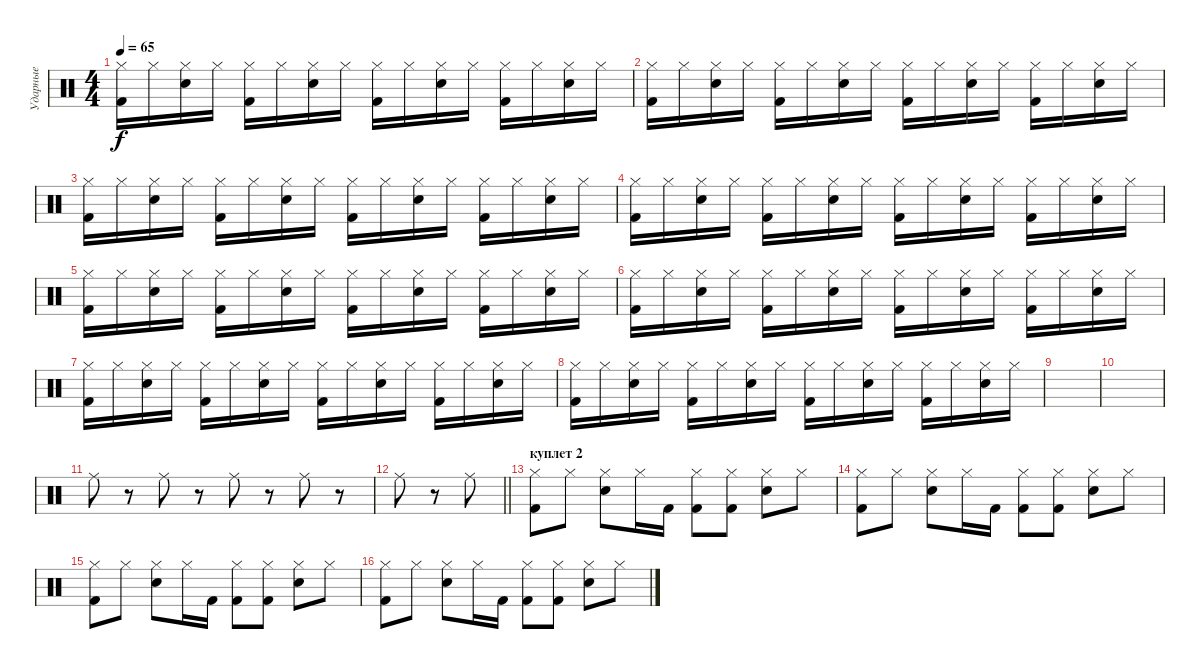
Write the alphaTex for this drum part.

\track ("Ударные" "Ударные") {instrument percussion}
\staff {score}
\articulation defaults
\ts (4 4)
\tempo 65
\clef neutral
\ks c
("Hi-Hat (closed)" "Kick (hit) 2").16{dy f} "Hi-Hat (closed)".16 ("Hi-Hat (closed)" "Snare (hit) 2").16 "Hi-Hat (closed)".16 ("Hi-Hat (closed)" "Kick (hit) 2").16 "Hi-Hat (closed)".16 ("Hi-Hat (closed)" "Snare (hit) 2").16 "Hi-Hat (closed)".16 ("Hi-Hat (closed)" "Kick (hit) 2").16 "Hi-Hat (closed)".16 ("Hi-Hat (closed)" "Snare (hit) 2").16 "Hi-Hat (closed)".16 ("Hi-Hat (closed)" "Kick (hit) 2").16 "Hi-Hat (closed)".16 ("Hi-Hat (closed)" "Snare (hit) 2").16 "Hi-Hat (closed)".16 |
("Hi-Hat (closed)" "Kick (hit) 2").16 "Hi-Hat (closed)".16 ("Hi-Hat (closed)" "Snare (hit) 2").16 "Hi-Hat (closed)".16 ("Hi-Hat (closed)" "Kick (hit) 2").16 "Hi-Hat (closed)".16 ("Hi-Hat (closed)" "Snare (hit) 2").16 "Hi-Hat (closed)".16 ("Hi-Hat (closed)" "Kick (hit) 2").16 "Hi-Hat (closed)".16 ("Hi-Hat (closed)" "Snare (hit) 2").16 "Hi-Hat (closed)".16 ("Hi-Hat (closed)" "Kick (hit) 2").16 "Hi-Hat (closed)".16 ("Hi-Hat (closed)" "Snare (hit) 2").16 "Hi-Hat (closed)".16 |
("Hi-Hat (closed)" "Kick (hit) 2").16 "Hi-Hat (closed)".16 ("Hi-Hat (closed)" "Snare (hit) 2").16 "Hi-Hat (closed)".16 ("Hi-Hat (closed)" "Kick (hit) 2").16 "Hi-Hat (closed)".16 ("Hi-Hat (closed)" "Snare (hit) 2").16 "Hi-Hat (closed)".16 ("Hi-Hat (closed)" "Kick (hit) 2").16 "Hi-Hat (closed)".16 ("Hi-Hat (closed)" "Snare (hit) 2").16 "Hi-Hat (closed)".16 ("Hi-Hat (closed)" "Kick (hit) 2").16 "Hi-Hat (closed)".16 ("Hi-Hat (closed)" "Snare (hit) 2").16 "Hi-Hat (closed)".16 |
("Hi-Hat (closed)" "Kick (hit) 2").16 "Hi-Hat (closed)".16 ("Hi-Hat (closed)" "Snare (hit) 2").16 "Hi-Hat (closed)".16 ("Hi-Hat (closed)" "Kick (hit) 2").16 "Hi-Hat (closed)".16 ("Hi-Hat (closed)" "Snare (hit) 2").16 "Hi-Hat (closed)".16 ("Hi-Hat (closed)" "Kick (hit) 2").16 "Hi-Hat (closed)".16 ("Hi-Hat (closed)" "Snare (hit) 2").16 "Hi-Hat (closed)".16 ("Hi-Hat (closed)" "Kick (hit) 2").16 "Hi-Hat (closed)".16 ("Hi-Hat (closed)" "Snare (hit) 2").16 "Hi-Hat (closed)".16 |
("Hi-Hat (closed)" "Kick (hit) 2").16 "Hi-Hat (closed)".16 ("Hi-Hat (closed)" "Snare (hit) 2").16 "Hi-Hat (closed)".16 ("Hi-Hat (closed)" "Kick (hit) 2").16 "Hi-Hat (closed)".16 ("Hi-Hat (closed)" "Snare (hit) 2").16 "Hi-Hat (closed)".16 ("Hi-Hat (closed)" "Kick (hit) 2").16 "Hi-Hat (closed)".16 ("Hi-Hat (closed)" "Snare (hit) 2").16 "Hi-Hat (closed)".16 ("Hi-Hat (closed)" "Kick (hit) 2").16 "Hi-Hat (closed)".16 ("Hi-Hat (closed)" "Snare (hit) 2").16 "Hi-Hat (closed)".16 |
("Hi-Hat (closed)" "Kick (hit) 2").16 "Hi-Hat (closed)".16 ("Hi-Hat (closed)" "Snare (hit) 2").16 "Hi-Hat (closed)".16 ("Hi-Hat (closed)" "Kick (hit) 2").16 "Hi-Hat (closed)".16 ("Hi-Hat (closed)" "Snare (hit) 2").16 "Hi-Hat (closed)".16 ("Hi-Hat (closed)" "Kick (hit) 2").16 "Hi-Hat (closed)".16 ("Hi-Hat (closed)" "Snare (hit) 2").16 "Hi-Hat (closed)".16 ("Hi-Hat (closed)" "Kick (hit) 2").16 "Hi-Hat (closed)".16 ("Hi-Hat (closed)" "Snare (hit) 2").16 "Hi-Hat (closed)".16 |
("Hi-Hat (closed)" "Kick (hit) 2").16 "Hi-Hat (closed)".16 ("Hi-Hat (closed)" "Snare (hit) 2").16 "Hi-Hat (closed)".16 ("Hi-Hat (closed)" "Kick (hit) 2").16 "Hi-Hat (closed)".16 ("Hi-Hat (closed)" "Snare (hit) 2").16 "Hi-Hat (closed)".16 ("Hi-Hat (closed)" "Kick (hit) 2").16 "Hi-Hat (closed)".16 ("Hi-Hat (closed)" "Snare (hit) 2").16 "Hi-Hat (closed)".16 ("Hi-Hat (closed)" "Kick (hit) 2").16 "Hi-Hat (closed)".16 ("Hi-Hat (closed)" "Snare (hit) 2").16 "Hi-Hat (closed)".16 |
("Hi-Hat (closed)" "Kick (hit) 2").16 "Hi-Hat (closed)".16 ("Hi-Hat (closed)" "Snare (hit) 2").16 "Hi-Hat (closed)".16 ("Hi-Hat (closed)" "Kick (hit) 2").16 "Hi-Hat (closed)".16 ("Hi-Hat (closed)" "Snare (hit) 2").16 "Hi-Hat (closed)".16 ("Hi-Hat (closed)" "Kick (hit) 2").16 "Hi-Hat (closed)".16 ("Hi-Hat (closed)" "Snare (hit) 2").16 "Hi-Hat (closed)".16 ("Hi-Hat (closed)" "Kick (hit) 2").16 "Hi-Hat (closed)".16 ("Hi-Hat (closed)" "Snare (hit) 2").16 "Hi-Hat (closed)".16 |
|
|
"Ride (middle)".8 r.8 "Ride (middle)".8 r.8 "Ride (middle)".8 r.8 "Ride (middle)".8 r.8 |
\barLineRight lightlight "Ride (middle)".8
r.8 "Ride (middle)".8 |
\section ("" "куплет 2")
("Hi-Hat (closed)" "Kick (hit) 2").8 "Hi-Hat (closed)".8 ("Hi-Hat (closed)" "Snare (hit) 2").8 "Hi-Hat (closed)".16 "Kick (hit) 2".16 ("Hi-Hat (closed)" "Kick (hit) 2").8 ("Hi-Hat (closed)" "Kick (hit) 2").8 ("Hi-Hat (closed)" "Snare (hit) 2").8 "Hi-Hat (closed)".8 |
("Hi-Hat (closed)" "Kick (hit) 2").8 "Hi-Hat (closed)".8 ("Hi-Hat (closed)" "Snare (hit) 2").8 "Hi-Hat (closed)".16 "Kick (hit) 2".16 ("Hi-Hat (closed)" "Kick (hit) 2").8 ("Hi-Hat (closed)" "Kick (hit) 2").8 ("Hi-Hat (closed)" "Snare (hit) 2").8 "Hi-Hat (closed)".8 |
("Hi-Hat (closed)" "Kick (hit) 2").8 "Hi-Hat (closed)".8 ("Hi-Hat (closed)" "Snare (hit) 2").8 "Hi-Hat (closed)".16 "Kick (hit) 2".16 ("Hi-Hat (closed)" "Kick (hit) 2").8 ("Hi-Hat (closed)" "Kick (hit) 2").8 ("Hi-Hat (closed)" "Snare (hit) 2").8 "Hi-Hat (closed)".8 |
("Hi-Hat (closed)" "Kick (hit) 2").8 "Hi-Hat (closed)".8 ("Hi-Hat (closed)" "Snare (hit) 2").8 "Hi-Hat (closed)".16 "Kick (hit) 2".16 ("Hi-Hat (closed)" "Kick (hit) 2").8 ("Hi-Hat (closed)" "Kick (hit) 2").8 ("Hi-Hat (closed)" "Snare (hit) 2").8 "Hi-Hat (closed)".8
